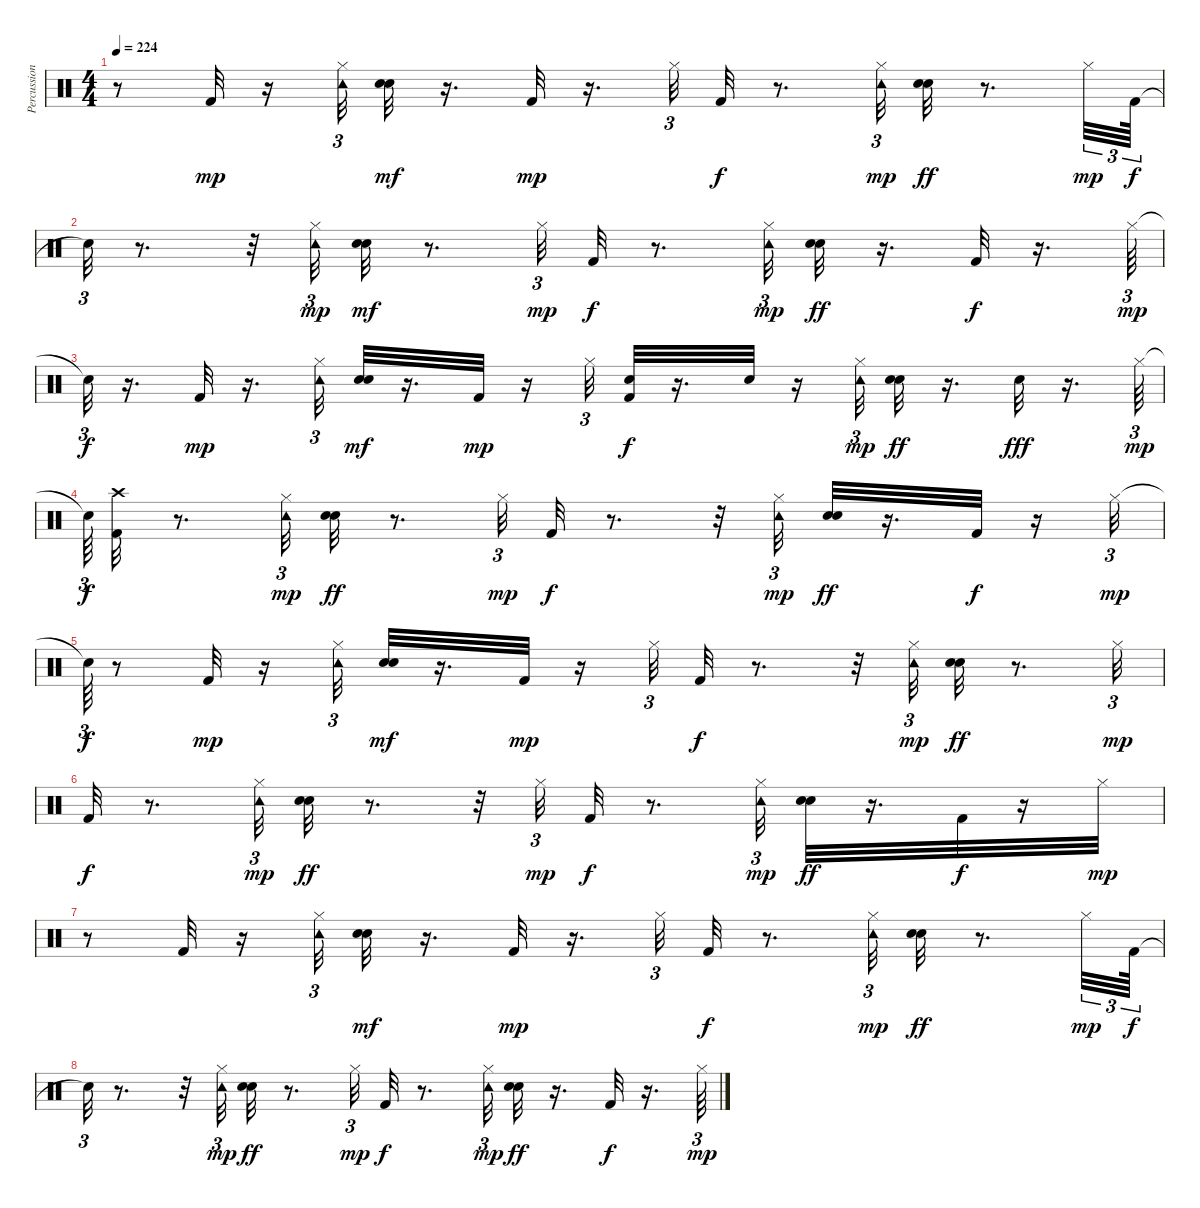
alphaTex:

\track ("Percussion" "Percussion") {instrument percussion}
\staff {score}
\articulation defaults
\ts (4 4)
\tempo 224
\clef neutral
\ks c
r.8{dy mp} "Kick (hit) 2".32 r.16 ("Tambourine (hit)" "Hi-Hat (closed)").32{tu (3 2)} ("Hand Clap (hit)" "Snare (hit) 2").32{dy mf} r.16{d} "Kick (hit) 2".32{dy mp} r.16{d} "Hi-Hat (closed)".32{tu (3 2)} "Kick (hit) 2".32{dy f} r.8{d} ("Tambourine (hit)" "Hi-Hat (closed)").32{tu (3 2) dy mp} ("Hand Clap (hit)" "Snare (hit) 2").32{dy ff} r.8{d} "Hi-Hat (closed)".32{tu (3 2) dy mp} "Kick (hit) 2".64{tu (3 2) dy f} |
"Snare (hit)"{t}.32{tu (3 2)} r.8{d} r.32 ("Tambourine (hit)" "Hi-Hat (closed)").32{tu (3 2) dy mp} ("Hand Clap (hit)" "Snare (hit) 2").32{dy mf} r.8{d} "Hi-Hat (closed)".32{tu (3 2) dy mp} "Kick (hit) 2".32{dy f} r.8{d} ("Tambourine (hit)" "Hi-Hat (closed)").32{tu (3 2) dy mp} ("Hand Clap (hit)" "Snare (hit) 2").32{dy ff} r.16{d} "Kick (hit) 2".32{dy f} r.16{d} "Hi-Hat (closed)".64{tu (3 2) dy mp} |
"Snare (hit)"{t}.32{tu (3 2) dy f} r.16{d} "Kick (hit) 2".32{dy mp} r.16{d} ("Tambourine (hit)" "Hi-Hat (closed)").32{tu (3 2)} ("Hand Clap (hit)" "Snare (hit) 2").32{dy mf} r.16{d} "Kick (hit) 2".32{dy mp} r.16 "Hi-Hat (closed)".32{tu (3 2)} ("Kick (hit) 2" "Snare (hit) 2").32{dy f} r.16{d} "Snare (hit) 2".32 r.16 ("Tambourine (hit)" "Hi-Hat (closed)").32{tu (3 2) dy mp} ("Hand Clap (hit)" "Snare (hit) 2").32{dy ff} r.16{d} "Snare (hit) 2".32{dy fff} r.16{d} "Hi-Hat (closed)".64{tu (3 2) dy mp} |
"Snare (hit)"{t}.64{tu (3 2) dy f} ("Kick (hit) 2" "Crash high (hit)").32 r.8{d} ("Tambourine (hit)" "Hi-Hat (closed)").32{tu (3 2) dy mp} ("Hand Clap (hit)" "Snare (hit) 2").32{dy ff} r.8{d} "Hi-Hat (closed)".32{tu (3 2) dy mp} "Kick (hit) 2".32{dy f} r.8{d} r.32 ("Tambourine (hit)" "Hi-Hat (closed)").32{tu (3 2) dy mp} ("Hand Clap (hit)" "Snare (hit) 2").32{dy ff} r.16{d} "Kick (hit) 2".32{dy f} r.16 "Hi-Hat (closed)".32{tu (3 2) dy mp} |
"Snare (hit)"{t}.64{tu (3 2) dy f} r.8 "Kick (hit) 2".32{dy mp} r.16 ("Tambourine (hit)" "Hi-Hat (closed)").32{tu (3 2)} ("Hand Clap (hit)" "Snare (hit) 2").32{dy mf} r.16{d} "Kick (hit) 2".32{dy mp} r.16 "Hi-Hat (closed)".32{tu (3 2)} "Kick (hit) 2".32{dy f} r.8{d} r.32 ("Tambourine (hit)" "Hi-Hat (closed)").32{tu (3 2) dy mp} ("Hand Clap (hit)" "Snare (hit) 2").32{dy ff} r.8{d} "Hi-Hat (closed)".32{tu (3 2) dy mp} |
"Kick (hit) 2".32{dy f} r.8{d} ("Tambourine (hit)" "Hi-Hat (closed)").32{tu (3 2) dy mp} ("Hand Clap (hit)" "Snare (hit) 2").32{dy ff} r.8{d} r.32 "Hi-Hat (closed)".32{tu (3 2) dy mp} "Kick (hit) 2".32{dy f} r.8{d} ("Tambourine (hit)" "Hi-Hat (closed)").32{tu (3 2) dy mp} ("Hand Clap (hit)" "Snare (hit) 2").32{dy ff} r.16{d} "Kick (hit) 2".32{dy f} r.16 "Hi-Hat (closed)".32{dy mp} |
r.8 "Kick (hit) 2".32 r.16 ("Tambourine (hit)" "Hi-Hat (closed)").32{tu (3 2)} ("Hand Clap (hit)" "Snare (hit) 2").32{dy mf} r.16{d} "Kick (hit) 2".32{dy mp} r.16{d} "Hi-Hat (closed)".32{tu (3 2)} "Kick (hit) 2".32{dy f} r.8{d} ("Tambourine (hit)" "Hi-Hat (closed)").32{tu (3 2) dy mp} ("Hand Clap (hit)" "Snare (hit) 2").32{dy ff} r.8{d} "Hi-Hat (closed)".32{tu (3 2) dy mp} "Kick (hit) 2".64{tu (3 2) dy f} |
"Snare (hit)"{t}.32{tu (3 2)} r.8{d} r.32 ("Tambourine (hit)" "Hi-Hat (closed)").32{tu (3 2) dy mp} ("Hand Clap (hit)" "Snare (hit) 2").32{dy ff} r.8{d} "Hi-Hat (closed)".32{tu (3 2) dy mp} "Kick (hit) 2".32{dy f} r.8{d} ("Tambourine (hit)" "Hi-Hat (closed)").32{tu (3 2) dy mp} ("Hand Clap (hit)" "Snare (hit) 2").32{dy ff} r.16{d} "Kick (hit) 2".32{dy f} r.16{d} "Hi-Hat (closed)".64{tu (3 2) dy mp}
